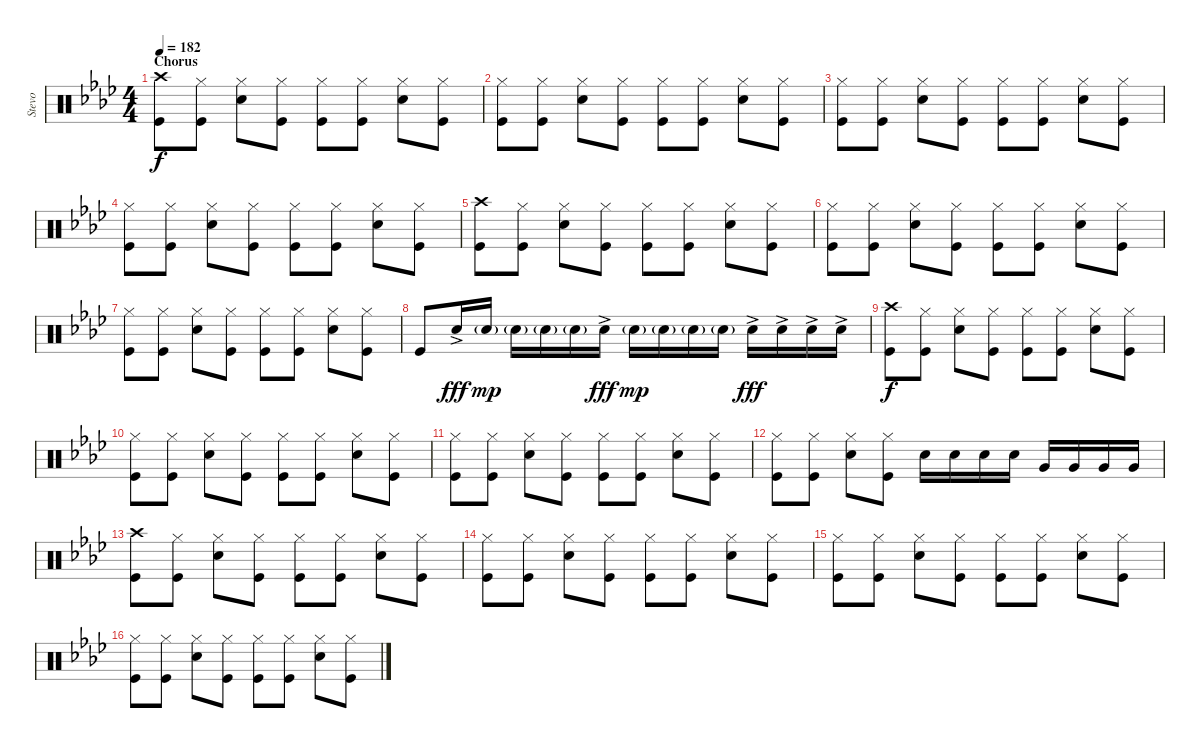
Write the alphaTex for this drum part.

\track ("Stevo" "Stevo") {instrument percussion}
\staff {score}
\articulation defaults
\ts (4 4)
\section ("" "Chorus")
\tempo 182
\clef neutral
\ks ab
("Crash high (hit)" "Kick (hit)").8{dy f} ("Hi-Hat (closed)" "Kick (hit)").8 ("Hi-Hat (closed)" "Snare (hit) 2").8 ("Hi-Hat (closed)" "Kick (hit)").8 ("Hi-Hat (closed)" "Kick (hit)").8 ("Hi-Hat (closed)" "Kick (hit)").8 ("Hi-Hat (closed)" "Snare (hit) 2").8 ("Hi-Hat (closed)" "Kick (hit)").8 |
("Hi-Hat (closed)" "Kick (hit)").8 ("Hi-Hat (closed)" "Kick (hit)").8 ("Hi-Hat (closed)" "Snare (hit) 2").8 ("Hi-Hat (closed)" "Kick (hit)").8 ("Hi-Hat (closed)" "Kick (hit)").8 ("Hi-Hat (closed)" "Kick (hit)").8 ("Hi-Hat (closed)" "Snare (hit) 2").8 ("Hi-Hat (closed)" "Kick (hit)").8 |
("Hi-Hat (closed)" "Kick (hit)").8 ("Hi-Hat (closed)" "Kick (hit)").8 ("Hi-Hat (closed)" "Snare (hit) 2").8 ("Hi-Hat (closed)" "Kick (hit)").8 ("Hi-Hat (closed)" "Kick (hit)").8 ("Hi-Hat (closed)" "Kick (hit)").8 ("Hi-Hat (closed)" "Snare (hit) 2").8 ("Hi-Hat (closed)" "Kick (hit)").8 |
("Hi-Hat (closed)" "Kick (hit)").8 ("Hi-Hat (closed)" "Kick (hit)").8 ("Hi-Hat (closed)" "Snare (hit) 2").8 ("Hi-Hat (closed)" "Kick (hit)").8 ("Hi-Hat (closed)" "Kick (hit)").8 ("Hi-Hat (closed)" "Kick (hit)").8 ("Hi-Hat (closed)" "Snare (hit) 2").8 ("Hi-Hat (closed)" "Kick (hit)").8 |
("Crash high (hit)" "Kick (hit)").8 ("Hi-Hat (closed)" "Kick (hit)").8 ("Hi-Hat (closed)" "Snare (hit) 2").8 ("Hi-Hat (closed)" "Kick (hit)").8 ("Hi-Hat (closed)" "Kick (hit)").8 ("Hi-Hat (closed)" "Kick (hit)").8 ("Hi-Hat (closed)" "Snare (hit) 2").8 ("Hi-Hat (closed)" "Kick (hit)").8 |
("Hi-Hat (closed)" "Kick (hit)").8 ("Hi-Hat (closed)" "Kick (hit)").8 ("Hi-Hat (closed)" "Snare (hit) 2").8 ("Hi-Hat (closed)" "Kick (hit)").8 ("Hi-Hat (closed)" "Kick (hit)").8 ("Hi-Hat (closed)" "Kick (hit)").8 ("Hi-Hat (closed)" "Snare (hit) 2").8 ("Hi-Hat (closed)" "Kick (hit)").8 |
("Hi-Hat (closed)" "Kick (hit)").8 ("Hi-Hat (closed)" "Kick (hit)").8 ("Hi-Hat (closed)" "Snare (hit) 2").8 ("Hi-Hat (closed)" "Kick (hit)").8 ("Hi-Hat (closed)" "Kick (hit)").8 ("Hi-Hat (closed)" "Kick (hit)").8 ("Hi-Hat (closed)" "Snare (hit) 2").8 ("Hi-Hat (closed)" "Kick (hit)").8 |
"Kick (hit)".8 "Snare (hit) 2"{ac}.16{dy fff} "Snare (hit) 2"{g}.16{dy mp} "Snare (hit) 2"{g}.16 "Snare (hit) 2"{g}.16 "Snare (hit) 2"{g}.16 "Snare (hit) 2"{ac}.16{dy fff} "Snare (hit) 2"{g}.16{dy mp} "Snare (hit) 2"{g}.16 "Snare (hit) 2"{g}.16 "Snare (hit) 2"{g}.16 "Snare (hit) 2"{ac}.16{dy fff} "Snare (hit) 2"{ac}.16 "Snare (hit) 2"{ac}.16 "Snare (hit) 2"{ac}.16 |
("Crash high (hit)" "Kick (hit)").8{dy f} ("Hi-Hat (closed)" "Kick (hit)").8 ("Hi-Hat (closed)" "Snare (hit) 2").8 ("Hi-Hat (closed)" "Kick (hit)").8 ("Hi-Hat (closed)" "Kick (hit)").8 ("Hi-Hat (closed)" "Kick (hit)").8 ("Hi-Hat (closed)" "Snare (hit) 2").8 ("Hi-Hat (closed)" "Kick (hit)").8 |
("Hi-Hat (closed)" "Kick (hit)").8 ("Hi-Hat (closed)" "Kick (hit)").8 ("Hi-Hat (closed)" "Snare (hit) 2").8 ("Hi-Hat (closed)" "Kick (hit)").8 ("Hi-Hat (closed)" "Kick (hit)").8 ("Hi-Hat (closed)" "Kick (hit)").8 ("Hi-Hat (closed)" "Snare (hit) 2").8 ("Hi-Hat (closed)" "Kick (hit)").8 |
("Hi-Hat (closed)" "Kick (hit)").8 ("Hi-Hat (closed)" "Kick (hit)").8 ("Hi-Hat (closed)" "Snare (hit) 2").8 ("Hi-Hat (closed)" "Kick (hit)").8 ("Hi-Hat (closed)" "Kick (hit)").8 ("Hi-Hat (closed)" "Kick (hit)").8 ("Hi-Hat (closed)" "Snare (hit) 2").8 ("Hi-Hat (closed)" "Kick (hit)").8 |
("Hi-Hat (closed)" "Kick (hit)").8 ("Hi-Hat (closed)" "Kick (hit)").8 ("Hi-Hat (closed)" "Snare (hit) 2").8 ("Hi-Hat (closed)" "Kick (hit)").8 "Snare (hit) 2".16 "Snare (hit) 2".16 "Snare (hit) 2".16 "Snare (hit) 2".16 "Very Low Tom (hit)".16 "Very Low Tom (hit)".16 "Very Low Tom (hit)".16 "Very Low Tom (hit)".16 |
("Crash high (hit)" "Kick (hit)").8 ("Hi-Hat (closed)" "Kick (hit)").8 ("Hi-Hat (closed)" "Snare (hit) 2").8 ("Hi-Hat (closed)" "Kick (hit)").8 ("Hi-Hat (closed)" "Kick (hit)").8 ("Hi-Hat (closed)" "Kick (hit)").8 ("Hi-Hat (closed)" "Snare (hit) 2").8 ("Hi-Hat (closed)" "Kick (hit)").8 |
("Hi-Hat (closed)" "Kick (hit)").8 ("Hi-Hat (closed)" "Kick (hit)").8 ("Hi-Hat (closed)" "Snare (hit) 2").8 ("Hi-Hat (closed)" "Kick (hit)").8 ("Hi-Hat (closed)" "Kick (hit)").8 ("Hi-Hat (closed)" "Kick (hit)").8 ("Hi-Hat (closed)" "Snare (hit) 2").8 ("Hi-Hat (closed)" "Kick (hit)").8 |
("Hi-Hat (closed)" "Kick (hit)").8 ("Hi-Hat (closed)" "Kick (hit)").8 ("Hi-Hat (closed)" "Snare (hit) 2").8 ("Hi-Hat (closed)" "Kick (hit)").8 ("Hi-Hat (closed)" "Kick (hit)").8 ("Hi-Hat (closed)" "Kick (hit)").8 ("Hi-Hat (closed)" "Snare (hit) 2").8 ("Hi-Hat (closed)" "Kick (hit)").8 |
("Hi-Hat (closed)" "Kick (hit)").8 ("Hi-Hat (closed)" "Kick (hit)").8 ("Hi-Hat (closed)" "Snare (hit) 2").8 ("Hi-Hat (closed)" "Kick (hit)").8 ("Hi-Hat (closed)" "Kick (hit)").8 ("Hi-Hat (closed)" "Kick (hit)").8 ("Hi-Hat (closed)" "Snare (hit) 2").8 ("Hi-Hat (closed)" "Kick (hit)").8
